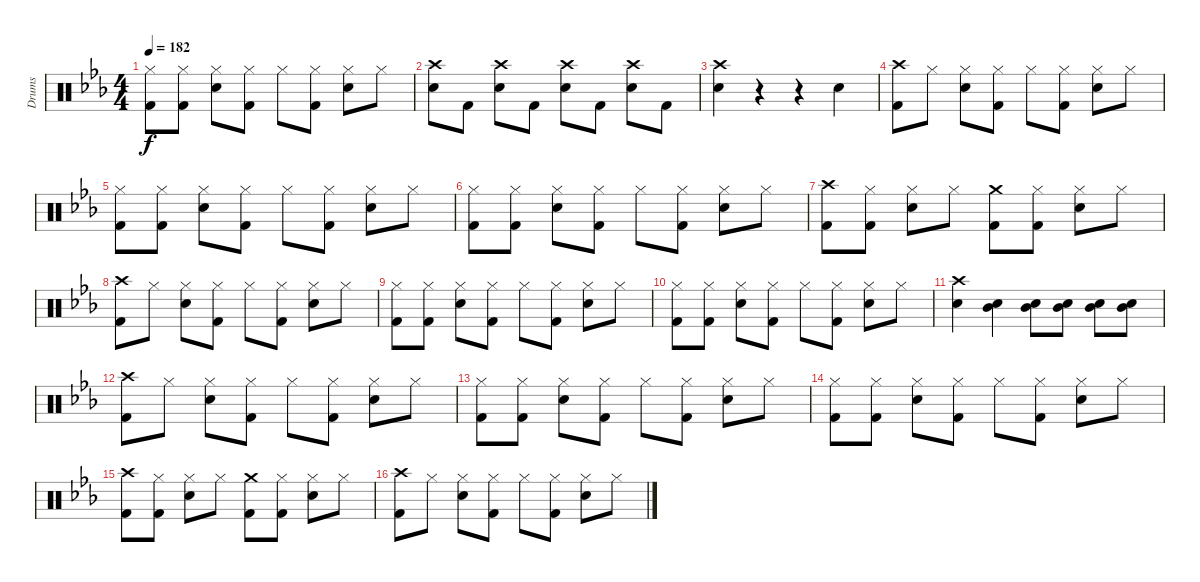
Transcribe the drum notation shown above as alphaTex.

\track ("Drums" "Drums") {instrument percussion}
\staff {score}
\articulation defaults
\ts (4 4)
\tempo 182
\clef neutral
\ks eb
("Hi-Hat (closed)" "Kick (hit) 2").8{dy f} ("Hi-Hat (closed)" "Kick (hit) 2").8 ("Hi-Hat (closed)" "Snare (hit) 2").8 ("Hi-Hat (closed)" "Kick (hit) 2").8 "Hi-Hat (closed)".8 ("Hi-Hat (closed)" "Kick (hit) 2").8 ("Hi-Hat (closed)" "Snare (hit) 2").8 "Hi-Hat (closed)".8 |
("Crash high (hit)" "Snare (hit) 2").8 "Kick (hit) 2".8 ("Crash high (hit)" "Snare (hit) 2").8 "Kick (hit) 2".8 ("Crash high (hit)" "Snare (hit) 2").8 "Kick (hit) 2".8 ("Crash high (hit)" "Snare (hit) 2").8 "Kick (hit) 2".8 |
("Crash high (hit)" "Snare (hit) 2").4 r.4 r.4 "Snare (hit) 2".4 |
("Crash high (hit)" "Kick (hit) 2").8 "Hi-Hat (closed)".8 ("Hi-Hat (closed)" "Snare (hit) 2").8 ("Hi-Hat (closed)" "Kick (hit) 2").8 "Hi-Hat (closed)".8 ("Hi-Hat (closed)" "Kick (hit) 2").8 ("Hi-Hat (closed)" "Snare (hit) 2").8 "Hi-Hat (closed)".8 |
("Hi-Hat (closed)" "Kick (hit) 2").8 ("Hi-Hat (closed)" "Kick (hit) 2").8 ("Hi-Hat (closed)" "Snare (hit) 2").8 ("Hi-Hat (closed)" "Kick (hit) 2").8 "Hi-Hat (closed)".8 ("Hi-Hat (closed)" "Kick (hit) 2").8 ("Hi-Hat (closed)" "Snare (hit) 2").8 "Hi-Hat (closed)".8 |
("Hi-Hat (closed)" "Kick (hit) 2").8 ("Hi-Hat (closed)" "Kick (hit) 2").8 ("Hi-Hat (closed)" "Snare (hit) 2").8 ("Hi-Hat (closed)" "Kick (hit) 2").8 "Hi-Hat (closed)".8 ("Hi-Hat (closed)" "Kick (hit) 2").8 ("Hi-Hat (closed)" "Snare (hit) 2").8 "Hi-Hat (closed)".8 |
("Crash high (hit)" "Kick (hit) 2").8 ("Hi-Hat (closed)" "Kick (hit) 2").8 ("Hi-Hat (closed)" "Snare (hit) 2").8 "Hi-Hat (closed)".8 ("Crash medium (hit)" "Kick (hit) 2").8 ("Hi-Hat (closed)" "Kick (hit) 2").8 ("Hi-Hat (closed)" "Snare (hit) 2").8 "Hi-Hat (closed)".8 |
("Crash high (hit)" "Kick (hit) 2").8 "Hi-Hat (closed)".8 ("Hi-Hat (closed)" "Snare (hit) 2").8 ("Hi-Hat (closed)" "Kick (hit) 2").8 "Hi-Hat (closed)".8 ("Hi-Hat (closed)" "Kick (hit) 2").8 ("Hi-Hat (closed)" "Snare (hit) 2").8 "Hi-Hat (closed)".8 |
("Hi-Hat (closed)" "Kick (hit) 2").8 ("Hi-Hat (closed)" "Kick (hit) 2").8 ("Hi-Hat (closed)" "Snare (hit) 2").8 ("Hi-Hat (closed)" "Kick (hit) 2").8 "Hi-Hat (closed)".8 ("Hi-Hat (closed)" "Kick (hit) 2").8 ("Hi-Hat (closed)" "Snare (hit) 2").8 "Hi-Hat (closed)".8 |
("Hi-Hat (closed)" "Kick (hit) 2").8 ("Hi-Hat (closed)" "Kick (hit) 2").8 ("Hi-Hat (closed)" "Snare (hit) 2").8 ("Hi-Hat (closed)" "Kick (hit) 2").8 "Hi-Hat (closed)".8 ("Hi-Hat (closed)" "Kick (hit) 2").8 ("Hi-Hat (closed)" "Snare (hit) 2").8 "Hi-Hat (closed)".8 |
("Crash high (hit)" "Snare (hit) 2").4 ("Mid Tom (hit)" "Snare (hit) 2").4 ("Mid Tom (hit)" "Snare (hit) 2").8 ("Mid Tom (hit)" "Snare (hit) 2").8 ("Mid Tom (hit)" "Snare (hit) 2").8 ("Mid Tom (hit)" "Snare (hit) 2").8 |
("Crash high (hit)" "Kick (hit) 2").8 "Hi-Hat (closed)".8 ("Hi-Hat (closed)" "Snare (hit) 2").8 ("Hi-Hat (closed)" "Kick (hit) 2").8 "Hi-Hat (closed)".8 ("Hi-Hat (closed)" "Kick (hit) 2").8 ("Hi-Hat (closed)" "Snare (hit) 2").8 "Hi-Hat (closed)".8 |
("Hi-Hat (closed)" "Kick (hit) 2").8 ("Hi-Hat (closed)" "Kick (hit) 2").8 ("Hi-Hat (closed)" "Snare (hit) 2").8 ("Hi-Hat (closed)" "Kick (hit) 2").8 "Hi-Hat (closed)".8 ("Hi-Hat (closed)" "Kick (hit) 2").8 ("Hi-Hat (closed)" "Snare (hit) 2").8 "Hi-Hat (closed)".8 |
("Hi-Hat (closed)" "Kick (hit) 2").8 ("Hi-Hat (closed)" "Kick (hit) 2").8 ("Hi-Hat (closed)" "Snare (hit) 2").8 ("Hi-Hat (closed)" "Kick (hit) 2").8 "Hi-Hat (closed)".8 ("Hi-Hat (closed)" "Kick (hit) 2").8 ("Hi-Hat (closed)" "Snare (hit) 2").8 "Hi-Hat (closed)".8 |
("Crash high (hit)" "Kick (hit) 2").8 ("Hi-Hat (closed)" "Kick (hit) 2").8 ("Hi-Hat (closed)" "Snare (hit) 2").8 "Hi-Hat (closed)".8 ("Crash medium (hit)" "Kick (hit) 2").8 ("Hi-Hat (closed)" "Kick (hit) 2").8 ("Hi-Hat (closed)" "Snare (hit) 2").8 "Hi-Hat (closed)".8 |
("Crash high (hit)" "Kick (hit) 2").8 "Hi-Hat (closed)".8 ("Hi-Hat (closed)" "Snare (hit) 2").8 ("Hi-Hat (closed)" "Kick (hit) 2").8 "Hi-Hat (closed)".8 ("Hi-Hat (closed)" "Kick (hit) 2").8 ("Hi-Hat (closed)" "Snare (hit) 2").8 "Hi-Hat (closed)".8
